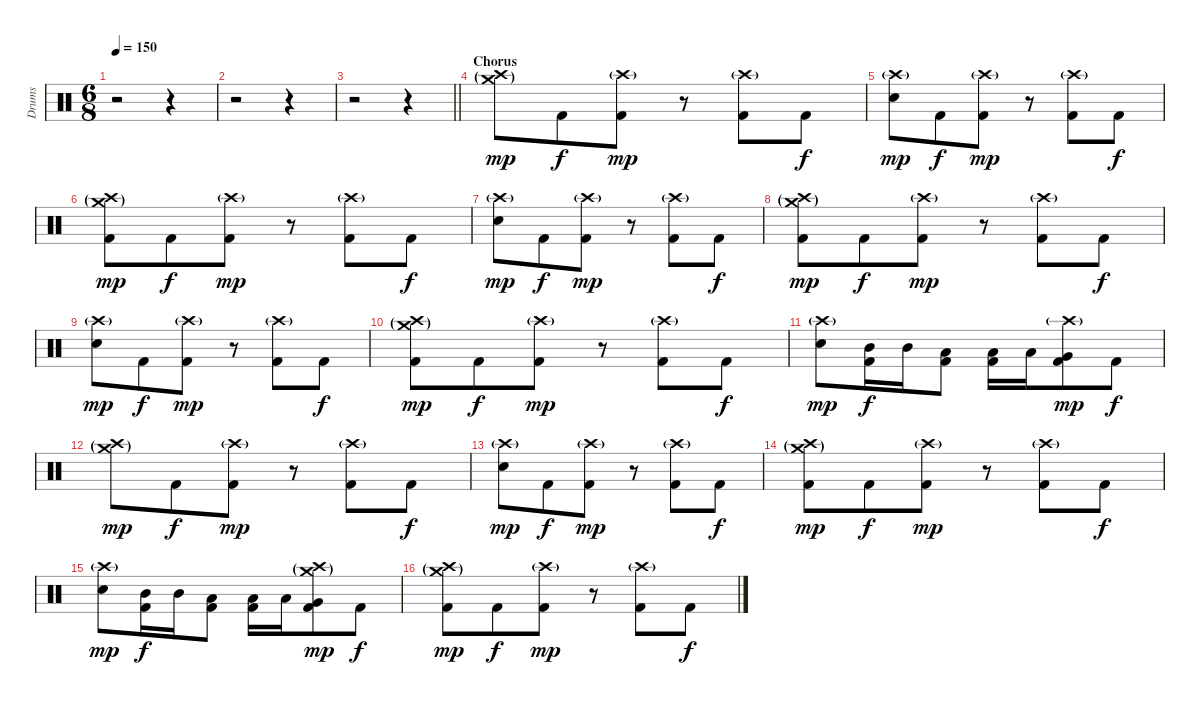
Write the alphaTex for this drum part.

\track ("Drums" "Drums") {mute instrument percussion}
\staff {score}
\articulation defaults
\ts (6 8)
\tempo 150
\clef neutral
\ks c
r.2{dy f} r.4 |
r.2 r.4 |
\barLineRight lightlight
r.2 r.4 |
\section ("" "Chorus")
("Crash medium (hit)"{g} "Crash high (hit)"{g}).8{dy mp} "Kick (hit) 2".8{dy f} ("Crash high (hit)"{g} "Kick (hit) 2").8{dy mp} r.8 ("Crash high (hit)"{g} "Kick (hit) 2").8 "Kick (hit) 2".8{dy f} |
("Crash high (hit)"{g} "Electric Snare (hit)").8{dy mp} "Kick (hit) 2".8{dy f} ("Crash high (hit)"{g} "Kick (hit) 2").8{dy mp} r.8 ("Crash high (hit)"{g} "Kick (hit) 2").8 "Kick (hit) 2".8{dy f} |
("Crash medium (hit)"{g} "Crash high (hit)"{g} "Kick (hit) 2").8{dy mp} "Kick (hit) 2".8{dy f} ("Crash high (hit)"{g} "Kick (hit) 2").8{dy mp} r.8 ("Crash high (hit)"{g} "Kick (hit) 2").8 "Kick (hit) 2".8{dy f} |
("Crash high (hit)"{g} "Electric Snare (hit)").8{dy mp} "Kick (hit) 2".8{dy f} ("Crash high (hit)"{g} "Kick (hit) 2").8{dy mp} r.8 ("Crash high (hit)"{g} "Kick (hit) 2").8 "Kick (hit) 2".8{dy f} |
("Crash medium (hit)"{g} "Crash high (hit)"{g} "Kick (hit) 2").8{dy mp} "Kick (hit) 2".8{dy f} ("Crash high (hit)"{g} "Kick (hit) 2").8{dy mp} r.8 ("Crash high (hit)"{g} "Kick (hit) 2").8 "Kick (hit) 2".8{dy f} |
("Crash high (hit)"{g} "Electric Snare (hit)").8{dy mp} "Kick (hit) 2".8{dy f} ("Crash high (hit)"{g} "Kick (hit) 2").8{dy mp} r.8 ("Crash high (hit)"{g} "Kick (hit) 2").8 "Kick (hit) 2".8{dy f} |
("Crash medium (hit)"{g} "Crash high (hit)"{g} "Kick (hit) 2").8{dy mp} "Kick (hit) 2".8{dy f} ("Crash high (hit)"{g} "Kick (hit) 2").8{dy mp} r.8 ("Crash high (hit)"{g} "Kick (hit) 2").8 "Kick (hit) 2".8{dy f} |
("Crash high (hit)"{g} "Electric Snare (hit)").8{dy mp} ("Mid Tom (hit)" "Kick (hit) 2").16{dy f} "Mid Tom (hit)".16 ("Low Tom (hit)" "Kick (hit) 2").8 ("Low Tom (hit)" "Kick (hit) 2").16 "Low Tom (hit)".16 ("Crash high (hit)"{g} "Very Low Tom (hit)" "Kick (hit) 2").8{dy mp} "Kick (hit) 2".8{dy f} |
("Crash medium (hit)"{g} "Crash high (hit)"{g}).8{dy mp} "Kick (hit) 2".8{dy f} ("Crash high (hit)"{g} "Kick (hit) 2").8{dy mp} r.8 ("Crash high (hit)"{g} "Kick (hit) 2").8 "Kick (hit) 2".8{dy f} |
("Crash high (hit)"{g} "Electric Snare (hit)").8{dy mp} "Kick (hit) 2".8{dy f} ("Crash high (hit)"{g} "Kick (hit) 2").8{dy mp} r.8 ("Crash high (hit)"{g} "Kick (hit) 2").8 "Kick (hit) 2".8{dy f} |
("Crash medium (hit)"{g} "Crash high (hit)"{g} "Kick (hit) 2").8{dy mp} "Kick (hit) 2".8{dy f} ("Crash high (hit)"{g} "Kick (hit) 2").8{dy mp} r.8 ("Crash high (hit)"{g} "Kick (hit) 2").8 "Kick (hit) 2".8{dy f} |
("Crash high (hit)"{g} "Electric Snare (hit)").8{dy mp} ("Mid Tom (hit)" "Kick (hit) 2").16{dy f} "Mid Tom (hit)".16 ("Low Tom (hit)" "Kick (hit) 2").8 ("Low Tom (hit)" "Kick (hit) 2").16 "Low Tom (hit)".16 ("Crash medium (hit)"{g} "Crash high (hit)"{g} "Very Low Tom (hit)" "Kick (hit) 2").8{dy mp} "Kick (hit) 2".8{dy f} |
("Crash medium (hit)"{g} "Crash high (hit)"{g} "Kick (hit) 2").8{dy mp} "Kick (hit) 2".8{dy f} ("Crash high (hit)"{g} "Kick (hit) 2").8{dy mp} r.8 ("Crash high (hit)"{g} "Kick (hit) 2").8 "Kick (hit) 2".8{dy f}
